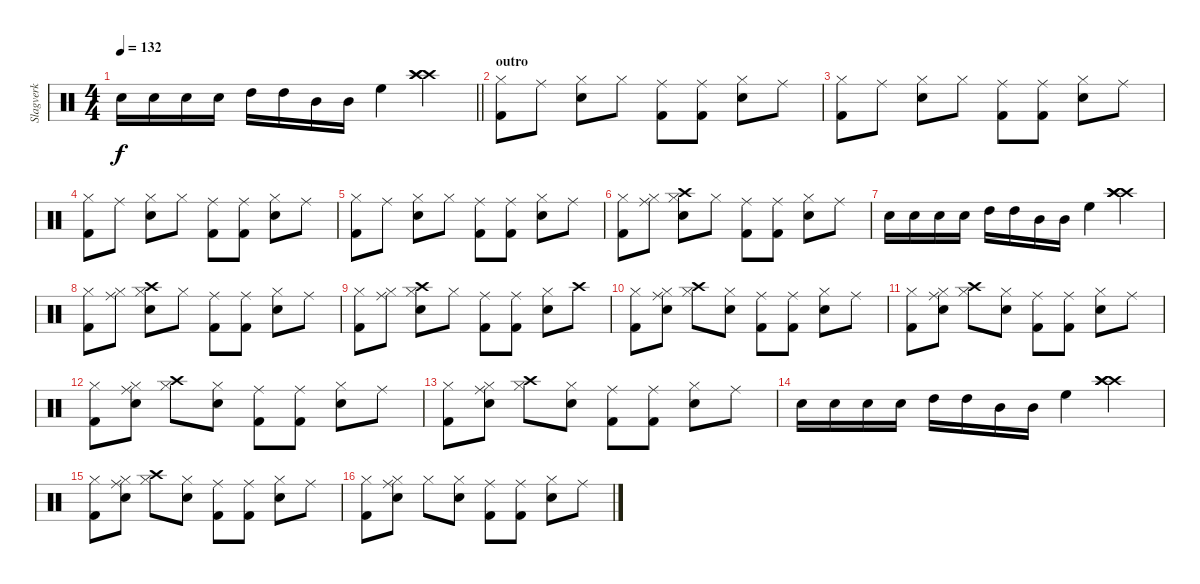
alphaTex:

\track ("Slagverk" "Slagverk") {instrument percussion}
\staff {score}
\articulation defaults
\ts (4 4)
\tempo 132
\clef neutral
\barLineRight lightlight
\ks c "Snare (hit) 2".16{dy f} "Snare (hit) 2".16 "Snare (hit) 2".16 "Snare (hit) 2".16 "High Tom (hit)".16 "High Tom (hit)".16 "Mid Tom (hit)".16 "Mid Tom (hit)".16 "High Floor Tom (hit)".4
("Crash high (hit)" "Crash high (hit)" "Crash high (hit)").4 |
\section ("" "outro")
("Kick (hit) 2" "Hi-Hat (closed)").8 "Ride (middle)".8 ("Snare (hit) 2" "Hi-Hat (closed)").8 "Hi-Hat (closed)".8 ("Kick (hit) 2" "Ride (middle)").8 ("Kick (hit) 2" "Ride (middle)").8 ("Snare (hit) 2" "Hi-Hat (closed)").8 "Ride (middle)".8 |
("Kick (hit) 2" "Hi-Hat (closed)").8 "Ride (middle)".8 ("Snare (hit) 2" "Hi-Hat (closed)").8 "Hi-Hat (closed)".8 ("Kick (hit) 2" "Ride (middle)").8 ("Kick (hit) 2" "Ride (middle)").8 ("Snare (hit) 2" "Hi-Hat (closed)").8 "Ride (middle)".8 |
("Kick (hit) 2" "Hi-Hat (closed)").8 "Ride (middle)".8 ("Snare (hit) 2" "Hi-Hat (closed)").8 "Hi-Hat (closed)".8 ("Kick (hit) 2" "Ride (middle)").8 ("Kick (hit) 2" "Ride (middle)").8 ("Snare (hit) 2" "Hi-Hat (closed)").8 "Ride (middle)".8 |
("Kick (hit) 2" "Hi-Hat (closed)").8 "Ride (middle)".8 ("Snare (hit) 2" "Hi-Hat (closed)").8 "Hi-Hat (closed)".8 ("Kick (hit) 2" "Ride (middle)").8 ("Kick (hit) 2" "Ride (middle)").8 ("Snare (hit) 2" "Hi-Hat (closed)").8 "Ride (middle)".8 |
("Kick (hit) 2" "Hi-Hat (closed)").8 ("Hi-Hat (closed)" "Ride (middle)").8 ("Snare (hit) 2" "Hi-Hat (closed)" "Crash high (hit)").8 "Hi-Hat (closed)".8 ("Kick (hit) 2" "Ride (middle)").8 ("Kick (hit) 2" "Ride (middle)").8 ("Snare (hit) 2" "Hi-Hat (closed)").8 "Ride (middle)".8 |
"Snare (hit) 2".16 "Snare (hit) 2".16 "Snare (hit) 2".16 "Snare (hit) 2".16 "High Tom (hit)".16 "High Tom (hit)".16 "Mid Tom (hit)".16 "Mid Tom (hit)".16 "High Floor Tom (hit)".4 ("Crash high (hit)" "Crash high (hit)" "Crash high (hit)").4 |
("Kick (hit) 2" "Hi-Hat (closed)").8 ("Hi-Hat (closed)" "Ride (middle)").8 ("Snare (hit) 2" "Hi-Hat (closed)" "Crash high (hit)").8 "Hi-Hat (closed)".8 ("Kick (hit) 2" "Ride (middle)").8 ("Kick (hit) 2" "Ride (middle)").8 ("Snare (hit) 2" "Hi-Hat (closed)").8 "Ride (middle)".8 |
("Kick (hit) 2" "Hi-Hat (closed)").8 ("Hi-Hat (closed)" "Ride (middle)").8 ("Snare (hit) 2" "Hi-Hat (closed)" "Crash high (hit)").8 "Hi-Hat (closed)".8 ("Kick (hit) 2" "Ride (middle)").8 ("Kick (hit) 2" "Ride (middle)").8 ("Snare (hit) 2" "Hi-Hat (closed)").8 "Crash high (hit)".8 |
("Kick (hit) 2" "Hi-Hat (closed)").8 ("Snare (hit) 2" "Hi-Hat (closed)" "Ride (middle)").8 ("Hi-Hat (closed)" "Crash high (hit)").8 ("Snare (hit) 2" "Hi-Hat (closed)").8 ("Kick (hit) 2" "Ride (middle)").8 ("Kick (hit) 2" "Ride (middle)").8 ("Snare (hit) 2" "Hi-Hat (closed)").8 "Ride (middle)".8 |
("Kick (hit) 2" "Hi-Hat (closed)").8 ("Snare (hit) 2" "Hi-Hat (closed)" "Ride (middle)").8 ("Hi-Hat (closed)" "Crash high (hit)").8 ("Snare (hit) 2" "Hi-Hat (closed)").8 ("Kick (hit) 2" "Ride (middle)").8 ("Kick (hit) 2" "Ride (middle)").8 ("Snare (hit) 2" "Hi-Hat (closed)").8 "Ride (middle)".8 |
("Kick (hit) 2" "Hi-Hat (closed)").8 ("Snare (hit) 2" "Hi-Hat (closed)" "Ride (middle)").8 ("Hi-Hat (closed)" "Crash high (hit)").8 ("Snare (hit) 2" "Hi-Hat (closed)").8 ("Kick (hit) 2" "Ride (middle)").8 ("Kick (hit) 2" "Ride (middle)").8 ("Snare (hit) 2" "Hi-Hat (closed)").8 "Ride (middle)".8 |
("Kick (hit) 2" "Hi-Hat (closed)").8 ("Snare (hit) 2" "Hi-Hat (closed)" "Ride (middle)").8 ("Hi-Hat (closed)" "Crash high (hit)").8 ("Snare (hit) 2" "Hi-Hat (closed)").8 ("Kick (hit) 2" "Ride (middle)").8 ("Kick (hit) 2" "Ride (middle)").8 ("Snare (hit) 2" "Hi-Hat (closed)").8 "Ride (middle)".8 |
"Snare (hit) 2".16 "Snare (hit) 2".16 "Snare (hit) 2".16 "Snare (hit) 2".16 "High Tom (hit)".16 "High Tom (hit)".16 "Mid Tom (hit)".16 "Mid Tom (hit)".16 "High Floor Tom (hit)".4 ("Crash high (hit)" "Crash high (hit)" "Crash high (hit)").4 |
("Kick (hit) 2" "Hi-Hat (closed)").8 ("Snare (hit) 2" "Hi-Hat (closed)" "Ride (middle)").8 ("Hi-Hat (closed)" "Crash high (hit)").8 ("Snare (hit) 2" "Hi-Hat (closed)").8 ("Kick (hit) 2" "Ride (middle)").8 ("Kick (hit) 2" "Ride (middle)").8 ("Snare (hit) 2" "Hi-Hat (closed)").8 "Ride (middle)".8 |
("Kick (hit) 2" "Hi-Hat (closed)").8 ("Snare (hit) 2" "Hi-Hat (closed)" "Ride (middle)").8 "Hi-Hat (closed)".8 ("Snare (hit) 2" "Hi-Hat (closed)").8 ("Kick (hit) 2" "Ride (middle)").8 ("Kick (hit) 2" "Ride (middle)").8 ("Snare (hit) 2" "Hi-Hat (closed)").8 "Ride (middle)".8
